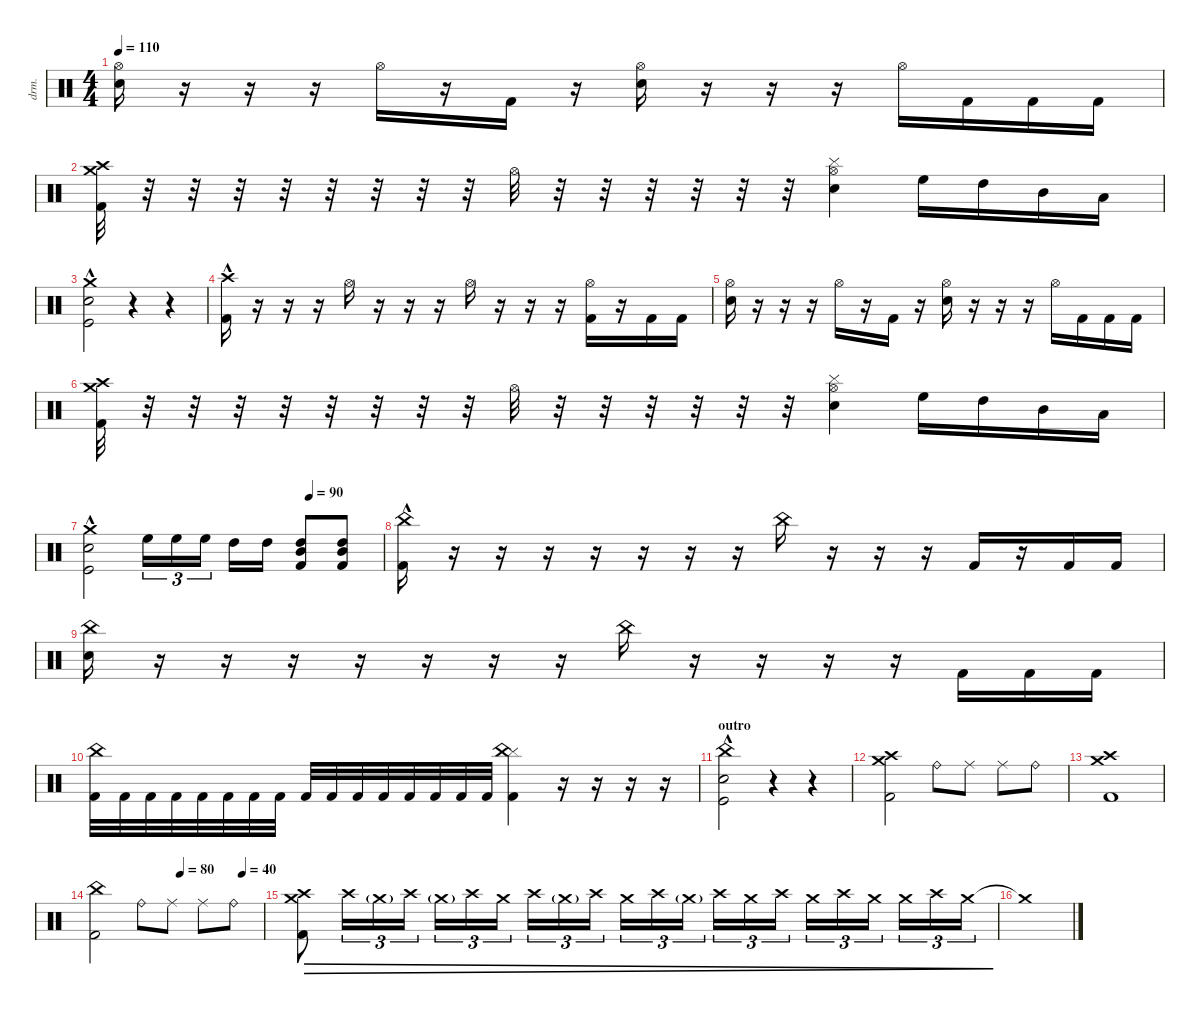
\defaultSystemsLayout 4
\hideDynamics
\bracketExtendMode nobrackets
\otherSystemsTrackNameOrientation horizontal
\track ("Joosep" "drm.") {instrument percussion}
\staff {score}
\articulation defaults
\ts (4 4)
\tempo 110
\clef neutral
\ks c
("Hi-Hat (open)" "Snare (hit) 2").16{dy mf beam Down} r.16{beam Down} r.16{beam Down} r.16{beam Down} "Hi-Hat (open)".16{beam Down} r.16{beam Down} "Kick (hit) 2".16{beam Down} r.16{beam Down} ("Hi-Hat (open)" "Snare (hit) 2").16{beam Down} r.16{beam Down} r.16{beam Down} r.16{beam Down} "Hi-Hat (open)".16{beam Down} "Kick (hit) 2".16{beam Down} "Kick (hit) 2".16{beam Down} "Kick (hit) 2".16{beam Down} |
("Kick (hit) 2" "Crash high (hit)" "Crash medium (hit)").32{beam Down} r.32{beam Down} r.32{beam Down} r.32{beam Down} r.32{beam Down} r.32{beam Down} r.32{beam Down} r.32{beam Down} r.32{beam Down} "Hi-Hat (open)".32{beam Down} r.32{beam Down} r.32{beam Down} r.32{beam Down} r.32{beam Down} r.32{beam Down} r.32{beam Down} ("Cymbal (hit)" "Snare (hit) 2" "Hi-Hat (open)").4{dy f beam Down} "High Floor Tom (hit)".16{dy mf beam Down} "High Tom (hit)".16{beam Down} "Mid Tom (hit)".16{beam Down} "Low Tom (hit)".16{beam Down} |
("Kick (hit)"{hac} "Snare (hit) 2"{hac} "Crash medium (hit)").2{dy f beam Down} r.4{beam Down} r.4{beam Down} |
("Kick (hit) 2"{hac} "Crash high (hit)").16{dy mf beam Down} r.16{beam Down} r.16{beam Down} r.16{beam Down} "Hi-Hat (open)".16{beam Down} r.16{beam Down} r.16{beam Down} r.16{beam Down} "Hi-Hat (open)".16{beam Down} r.16{beam Down} r.16{beam Down} r.16{beam Down} ("Hi-Hat (open)" "Kick (hit) 2").16{beam Down} r.16{beam Down} "Kick (hit) 2".16{beam Down} "Kick (hit) 2".16{beam Down} |
("Hi-Hat (open)" "Snare (hit) 2").16{beam Down} r.16{beam Down} r.16{beam Down} r.16{beam Down} "Hi-Hat (open)".16{beam Down} r.16{beam Down} "Kick (hit) 2".16{beam Down} r.16{beam Down} ("Hi-Hat (open)" "Snare (hit) 2").16{beam Down} r.16{beam Down} r.16{beam Down} r.16{beam Down} "Hi-Hat (open)".16{beam Down} "Kick (hit) 2".16{beam Down} "Kick (hit) 2".16{beam Down} "Kick (hit) 2".16{beam Down} |
("Kick (hit) 2" "Crash high (hit)" "Crash medium (hit)").32{beam Down} r.32{beam Down} r.32{beam Down} r.32{beam Down} r.32{beam Down} r.32{beam Down} r.32{beam Down} r.32{beam Down} r.32{beam Down} "Hi-Hat (open)".32{beam Down} r.32{beam Down} r.32{beam Down} r.32{beam Down} r.32{beam Down} r.32{beam Down} r.32{beam Down} ("Cymbal (hit)" "Snare (hit) 2" "Hi-Hat (open)").4{dy f beam Down} "High Floor Tom (hit)".16{dy mf beam Down} "High Tom (hit)".16{beam Down} "Mid Tom (hit)".16{beam Down} "Low Tom (hit)".16{beam Down} |
\tempo (90 0.75)
("Kick (hit)"{hac} "Snare (hit) 2"{hac} "Crash medium (hit)").2{dy f beam Down} "High Floor Tom (hit)".16{tu (3 2) beam Down} "High Floor Tom (hit)".16{tu (3 2) beam Down} "High Floor Tom (hit)".16{tu (3 2) beam Down} "High Tom (hit)".16{beam Down} "High Tom (hit)".16{beam Down} ("Mid Tom (hit)" "Kick (hit) 2" "High Tom (hit)").8{beam Up} ("Mid Tom (hit)" "Kick (hit) 2" "High Tom (hit)").8{beam Up} |
("Kick (hit) 2"{hac} "China (hit)").16{dy mf beam Down} r.16{beam Down} r.16{beam Down} r.16{beam Down} r.16{beam Down} r.16{beam Down} r.16{beam Down} r.16{beam Down} "China (hit)".16{beam Down} r.16{beam Down} r.16{beam Down} r.16{beam Down} "Kick (hit) 2".16{beam Up} r.16{beam Up} "Kick (hit) 2".16{beam Up} "Kick (hit) 2".16{beam Up} |
("Snare (hit) 2" "China (hit)").16{beam Down} r.16{beam Down} r.16{beam Down} r.16{beam Down} r.16{beam Down} r.16{beam Down} r.16{beam Down} r.16{beam Down} "China (hit)".16{beam Down} r.16{beam Down} r.16{beam Down} r.16{beam Down} r.16{beam Down} "Kick (hit) 2".16{beam Up} "Kick (hit) 2".16{beam Up} "Kick (hit) 2".16{beam Up} |
("Kick (hit) 2" "China (hit)").32{beam Down} "Kick (hit) 2".32{beam Down} "Kick (hit) 2".32{beam Down} "Kick (hit) 2".32{beam Down} "Kick (hit) 2".32{beam Down} "Kick (hit) 2".32{beam Down} "Kick (hit) 2".32{beam Down} "Kick (hit) 2".32{beam Down} "Kick (hit) 2".32{beam Up} "Kick (hit) 2".32{beam Up} "Kick (hit) 2".32{beam Up} "Kick (hit) 2".32{beam Up} "Kick (hit) 2".32{beam Up} "Kick (hit) 2".32{beam Up} "Kick (hit) 2".32{beam Up} "Kick (hit) 2".32{beam Up} ("Cymbal (hit)" "China (hit)" "Kick (hit) 2").4{dy mp beam Down} r.16{beam Down} r.16{beam Down} r.16{beam Down} r.16{beam Down} |
\section ("" "outro")
("Kick (hit)"{hac} "Snare (hit) 2"{hac} "China (hit)").2{beam Down} r.4{beam Down} r.4{beam Down} |
("Kick (hit) 2" "Crash high (hit)" "Crash medium (hit)").2{dy mf beam Down} "Ride (bell)".8{beam Down} "Ride (middle)".8{beam Down} "Ride (middle)".8{beam Down} "Ride (bell)".8{beam Down} |
("Kick (hit) 2" "Crash high (hit)" "Crash medium (hit)").1{beam Down} |
\tempo (80 0.5)
\tempo (40 0.875)
("Kick (hit) 2" "China (hit)").2{beam Down} "Ride (bell)".8{beam Down} "Ride (middle)".8{beam Down} "Ride (middle)".8{beam Down} "Ride (bell)".8{beam Down} |
("Kick (hit) 2" "Crash medium (hit)" "Crash high (hit)").8{dec beam Down} "Crash high (hit)".16{tu (3 2) dec beam Down} "Crash medium (hit)"{g}.16{tu (3 2) dec beam Down} "Crash high (hit)".16{tu (3 2) dec beam Down} "Crash medium (hit)"{g}.16{tu (3 2) dec beam Down} "Crash high (hit)".16{tu (3 2) dec beam Down} "Crash medium (hit)".16{tu (3 2) dec beam Down} "Crash high (hit)".16{tu (3 2) dec beam Down} "Crash medium (hit)"{g}.16{tu (3 2) dec beam Down} "Crash high (hit)".16{tu (3 2) dec beam Down} "Crash medium (hit)".16{tu (3 2) dec beam Down} "Crash high (hit)".16{tu (3 2) dec beam Down} "Crash medium (hit)"{g}.16{tu (3 2) dec beam Down} "Crash high (hit)".16{tu (3 2) dec beam Down} "Crash medium (hit)".16{tu (3 2) dec beam Down} "Crash high (hit)".16{tu (3 2) dec beam Down} "Crash medium (hit)".16{tu (3 2) dec beam Down} "Crash high (hit)".16{tu (3 2) dec beam Down} "Crash medium (hit)".16{tu (3 2) dec beam Down} "Crash medium (hit)".16{tu (3 2) dec beam Down} "Crash high (hit)".16{tu (3 2) dec beam Down} "Crash medium (hit)".16{tu (3 2) dec beam Down} |
"Crash medium (hit)"{t}.1{beam Down}
